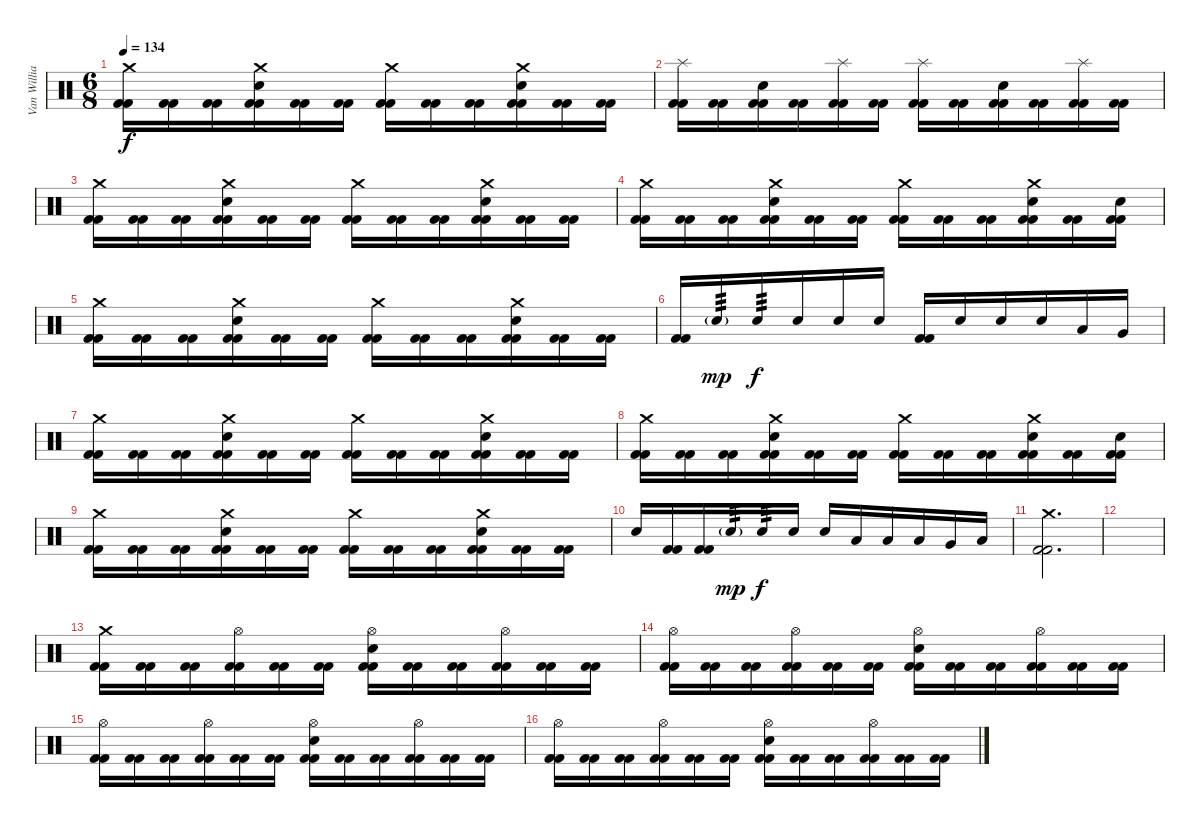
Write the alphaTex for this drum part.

\track ("Van Williams" "Van Willia") {instrument percussion}
\staff {score}
\articulation defaults
\ts (6 8)
\tempo 134
\clef neutral
\ks c
("Crash medium (hit)" "Kick (hit) 2" "Kick (hit) 2").16{dy f} ("Kick (hit) 2" "Kick (hit) 2").16 ("Kick (hit) 2" "Kick (hit) 2").16 ("Crash medium (hit)" "Electric Snare (hit)" "Kick (hit) 2" "Kick (hit) 2").16 ("Kick (hit) 2" "Kick (hit) 2").16 ("Kick (hit) 2" "Kick (hit) 2").16 ("Crash medium (hit)" "Kick (hit) 2" "Kick (hit) 2").16 ("Kick (hit) 2" "Kick (hit) 2").16 ("Kick (hit) 2" "Kick (hit) 2").16 ("Crash medium (hit)" "Electric Snare (hit)" "Kick (hit) 2" "Kick (hit) 2").16 ("Kick (hit) 2" "Kick (hit) 2").16 ("Kick (hit) 2" "Kick (hit) 2").16 |
("Splash (hit)" "Kick (hit) 2" "Kick (hit) 2").16 ("Kick (hit) 2" "Kick (hit) 2").16 ("Electric Snare (hit)" "Kick (hit) 2" "Kick (hit) 2").16 ("Kick (hit) 2" "Kick (hit) 2").16 ("Splash (hit)" "Kick (hit) 2" "Kick (hit) 2").16 ("Kick (hit) 2" "Kick (hit) 2").16 ("Splash (hit)" "Kick (hit) 2" "Kick (hit) 2").16 ("Kick (hit) 2" "Kick (hit) 2").16 ("Electric Snare (hit)" "Kick (hit) 2" "Kick (hit) 2").16 ("Kick (hit) 2" "Kick (hit) 2").16 ("Splash (hit)" "Kick (hit) 2" "Kick (hit) 2").16 ("Kick (hit) 2" "Kick (hit) 2").16 |
("Crash medium (hit)" "Kick (hit) 2" "Kick (hit) 2").16 ("Kick (hit) 2" "Kick (hit) 2").16 ("Kick (hit) 2" "Kick (hit) 2").16 ("Crash medium (hit)" "Electric Snare (hit)" "Kick (hit) 2" "Kick (hit) 2").16 ("Kick (hit) 2" "Kick (hit) 2").16 ("Kick (hit) 2" "Kick (hit) 2").16 ("Crash medium (hit)" "Kick (hit) 2" "Kick (hit) 2").16 ("Kick (hit) 2" "Kick (hit) 2").16 ("Kick (hit) 2" "Kick (hit) 2").16 ("Crash medium (hit)" "Electric Snare (hit)" "Kick (hit) 2" "Kick (hit) 2").16 ("Kick (hit) 2" "Kick (hit) 2").16 ("Kick (hit) 2" "Kick (hit) 2").16 |
("Crash medium (hit)" "Kick (hit) 2" "Kick (hit) 2").16 ("Kick (hit) 2" "Kick (hit) 2").16 ("Kick (hit) 2" "Kick (hit) 2").16 ("Crash medium (hit)" "Electric Snare (hit)" "Kick (hit) 2" "Kick (hit) 2").16 ("Kick (hit) 2" "Kick (hit) 2").16 ("Kick (hit) 2" "Kick (hit) 2").16 ("Crash medium (hit)" "Kick (hit) 2" "Kick (hit) 2").16 ("Kick (hit) 2" "Kick (hit) 2").16 ("Kick (hit) 2" "Kick (hit) 2").16 ("Crash medium (hit)" "Electric Snare (hit)" "Kick (hit) 2" "Kick (hit) 2").16 ("Kick (hit) 2" "Kick (hit) 2").16 ("Electric Snare (hit)" "Kick (hit) 2" "Kick (hit) 2").16 |
("Crash medium (hit)" "Kick (hit) 2" "Kick (hit) 2").16 ("Kick (hit) 2" "Kick (hit) 2").16 ("Kick (hit) 2" "Kick (hit) 2").16 ("Crash medium (hit)" "Electric Snare (hit)" "Kick (hit) 2" "Kick (hit) 2").16 ("Kick (hit) 2" "Kick (hit) 2").16 ("Kick (hit) 2" "Kick (hit) 2").16 ("Crash medium (hit)" "Kick (hit) 2" "Kick (hit) 2").16 ("Kick (hit) 2" "Kick (hit) 2").16 ("Kick (hit) 2" "Kick (hit) 2").16 ("Crash medium (hit)" "Electric Snare (hit)" "Kick (hit) 2" "Kick (hit) 2").16 ("Kick (hit) 2" "Kick (hit) 2").16 ("Kick (hit) 2" "Kick (hit) 2").16 |
("Kick (hit) 2" "Kick (hit) 2").16 "Electric Snare (hit)"{g}.16{tp 3 dy mp} "Electric Snare (hit)".16{tp 3 dy f} "Electric Snare (hit)".16 "Electric Snare (hit)".16 "Electric Snare (hit)".16 ("Kick (hit) 2" "Kick (hit) 2").16 "Electric Snare (hit)".16 "Electric Snare (hit)".16 "Electric Snare (hit)".16 "Low Tom (hit)".16 "Very Low Tom (hit)".16 |
("Crash medium (hit)" "Kick (hit) 2" "Kick (hit) 2").16 ("Kick (hit) 2" "Kick (hit) 2").16 ("Kick (hit) 2" "Kick (hit) 2").16 ("Crash medium (hit)" "Electric Snare (hit)" "Kick (hit) 2" "Kick (hit) 2").16 ("Kick (hit) 2" "Kick (hit) 2").16 ("Kick (hit) 2" "Kick (hit) 2").16 ("Crash medium (hit)" "Kick (hit) 2" "Kick (hit) 2").16 ("Kick (hit) 2" "Kick (hit) 2").16 ("Kick (hit) 2" "Kick (hit) 2").16 ("Crash medium (hit)" "Electric Snare (hit)" "Kick (hit) 2" "Kick (hit) 2").16 ("Kick (hit) 2" "Kick (hit) 2").16 ("Kick (hit) 2" "Kick (hit) 2").16 |
("Crash medium (hit)" "Kick (hit) 2" "Kick (hit) 2").16 ("Kick (hit) 2" "Kick (hit) 2").16 ("Kick (hit) 2" "Kick (hit) 2").16 ("Crash medium (hit)" "Electric Snare (hit)" "Kick (hit) 2" "Kick (hit) 2").16 ("Kick (hit) 2" "Kick (hit) 2").16 ("Kick (hit) 2" "Kick (hit) 2").16 ("Crash medium (hit)" "Kick (hit) 2" "Kick (hit) 2").16 ("Kick (hit) 2" "Kick (hit) 2").16 ("Kick (hit) 2" "Kick (hit) 2").16 ("Crash medium (hit)" "Electric Snare (hit)" "Kick (hit) 2" "Kick (hit) 2").16 ("Kick (hit) 2" "Kick (hit) 2").16 ("Electric Snare (hit)" "Kick (hit) 2" "Kick (hit) 2").16 |
("Crash medium (hit)" "Kick (hit) 2" "Kick (hit) 2").16 ("Kick (hit) 2" "Kick (hit) 2").16 ("Kick (hit) 2" "Kick (hit) 2").16 ("Crash medium (hit)" "Electric Snare (hit)" "Kick (hit) 2" "Kick (hit) 2").16 ("Kick (hit) 2" "Kick (hit) 2").16 ("Kick (hit) 2" "Kick (hit) 2").16 ("Crash medium (hit)" "Kick (hit) 2" "Kick (hit) 2").16 ("Kick (hit) 2" "Kick (hit) 2").16 ("Kick (hit) 2" "Kick (hit) 2").16 ("Crash medium (hit)" "Electric Snare (hit)" "Kick (hit) 2" "Kick (hit) 2").16 ("Kick (hit) 2" "Kick (hit) 2").16 ("Kick (hit) 2" "Kick (hit) 2").16 |
"Electric Snare (hit)".16 ("Kick (hit) 2" "Kick (hit) 2").16 ("Kick (hit) 2" "Kick (hit) 2").16 "Electric Snare (hit)"{g}.16{tp 3 dy mp} "Electric Snare (hit)".16{tp 3 dy f} "Electric Snare (hit)".16 "Electric Snare (hit)".16 "Low Tom (hit)".16 "Low Tom (hit)".16 "Low Tom (hit)".16 "Very Low Tom (hit)".16 "Low Floor Tom (hit)".16 |
("Crash medium (hit)" "Kick (hit) 2" "Kick (hit) 2").2{d} |
|
("Crash medium (hit)" "Kick (hit) 2" "Kick (hit) 2").16 ("Kick (hit) 2" "Kick (hit) 2").16 ("Kick (hit) 2" "Kick (hit) 2").16 ("Hi-Hat (open)" "Kick (hit) 2" "Kick (hit) 2").16 ("Kick (hit) 2" "Kick (hit) 2").16 ("Kick (hit) 2" "Kick (hit) 2").16 ("Hi-Hat (open)" "Electric Snare (hit)" "Kick (hit) 2" "Kick (hit) 2").16 ("Kick (hit) 2" "Kick (hit) 2").16 ("Kick (hit) 2" "Kick (hit) 2").16 ("Hi-Hat (open)" "Kick (hit) 2" "Kick (hit) 2").16 ("Kick (hit) 2" "Kick (hit) 2").16 ("Kick (hit) 2" "Kick (hit) 2").16 |
("Hi-Hat (open)" "Kick (hit) 2" "Kick (hit) 2").16 ("Kick (hit) 2" "Kick (hit) 2").16 ("Kick (hit) 2" "Kick (hit) 2").16 ("Hi-Hat (open)" "Kick (hit) 2" "Kick (hit) 2").16 ("Kick (hit) 2" "Kick (hit) 2").16 ("Kick (hit) 2" "Kick (hit) 2").16 ("Hi-Hat (open)" "Electric Snare (hit)" "Kick (hit) 2" "Kick (hit) 2").16 ("Kick (hit) 2" "Kick (hit) 2").16 ("Kick (hit) 2" "Kick (hit) 2").16 ("Hi-Hat (open)" "Kick (hit) 2" "Kick (hit) 2").16 ("Kick (hit) 2" "Kick (hit) 2").16 ("Kick (hit) 2" "Kick (hit) 2").16 |
("Hi-Hat (open)" "Kick (hit) 2" "Kick (hit) 2").16 ("Kick (hit) 2" "Kick (hit) 2").16 ("Kick (hit) 2" "Kick (hit) 2").16 ("Hi-Hat (open)" "Kick (hit) 2" "Kick (hit) 2").16 ("Kick (hit) 2" "Kick (hit) 2").16 ("Kick (hit) 2" "Kick (hit) 2").16 ("Hi-Hat (open)" "Electric Snare (hit)" "Kick (hit) 2" "Kick (hit) 2").16 ("Kick (hit) 2" "Kick (hit) 2").16 ("Kick (hit) 2" "Kick (hit) 2").16 ("Hi-Hat (open)" "Kick (hit) 2" "Kick (hit) 2").16 ("Kick (hit) 2" "Kick (hit) 2").16 ("Kick (hit) 2" "Kick (hit) 2").16 |
("Hi-Hat (open)" "Kick (hit) 2" "Kick (hit) 2").16 ("Kick (hit) 2" "Kick (hit) 2").16 ("Kick (hit) 2" "Kick (hit) 2").16 ("Hi-Hat (open)" "Kick (hit) 2" "Kick (hit) 2").16 ("Kick (hit) 2" "Kick (hit) 2").16 ("Kick (hit) 2" "Kick (hit) 2").16 ("Hi-Hat (open)" "Electric Snare (hit)" "Kick (hit) 2" "Kick (hit) 2").16 ("Kick (hit) 2" "Kick (hit) 2").16 ("Kick (hit) 2" "Kick (hit) 2").16 ("Hi-Hat (open)" "Kick (hit) 2" "Kick (hit) 2").16 ("Kick (hit) 2" "Kick (hit) 2").16 ("Kick (hit) 2" "Kick (hit) 2").16
